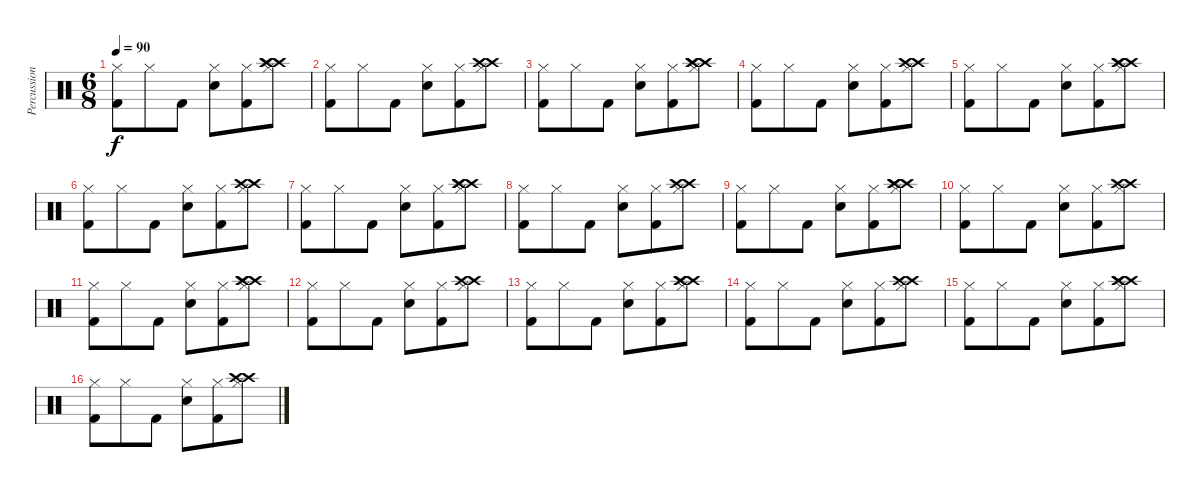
\track ("Percussion" "Percussion") {instrument percussion}
\staff {score}
\articulation defaults
\ts (6 8)
\tempo 90
\clef neutral
\ks c
("Hi-Hat (closed)" "Kick (hit) 2").8{dy f} "Hi-Hat (closed)".8 "Kick (hit) 2".8 ("Hi-Hat (closed)" "Electric Snare (hit)").8 ("Hi-Hat (closed)" "Kick (hit) 2").8 ("Hi-Hat (closed)" "Crash high (hit)" "Crash high (hit)" "Crash high (hit)").8 |
("Hi-Hat (closed)" "Kick (hit) 2").8 "Hi-Hat (closed)".8 "Kick (hit) 2".8 ("Hi-Hat (closed)" "Electric Snare (hit)").8 ("Hi-Hat (closed)" "Kick (hit) 2").8 ("Hi-Hat (closed)" "Crash high (hit)" "Crash high (hit)").8 |
("Hi-Hat (closed)" "Kick (hit) 2").8 "Hi-Hat (closed)".8 "Kick (hit) 2".8 ("Hi-Hat (closed)" "Electric Snare (hit)").8 ("Hi-Hat (closed)" "Kick (hit) 2").8 ("Hi-Hat (closed)" "Crash high (hit)" "Crash high (hit)" "Crash high (hit)").8 |
("Hi-Hat (closed)" "Kick (hit) 2").8 "Hi-Hat (closed)".8 "Kick (hit) 2".8 ("Hi-Hat (closed)" "Electric Snare (hit)").8 ("Hi-Hat (closed)" "Kick (hit) 2").8 ("Hi-Hat (closed)" "Crash high (hit)" "Crash high (hit)").8 |
("Hi-Hat (closed)" "Kick (hit) 2").8 "Hi-Hat (closed)".8 "Kick (hit) 2".8 ("Hi-Hat (closed)" "Electric Snare (hit)").8 ("Hi-Hat (closed)" "Kick (hit) 2").8 ("Hi-Hat (closed)" "Crash high (hit)" "Crash high (hit)" "Crash high (hit)").8 |
("Hi-Hat (closed)" "Kick (hit) 2").8 "Hi-Hat (closed)".8 "Kick (hit) 2".8 ("Hi-Hat (closed)" "Electric Snare (hit)").8 ("Hi-Hat (closed)" "Kick (hit) 2").8 ("Hi-Hat (closed)" "Crash high (hit)" "Crash high (hit)").8 |
("Hi-Hat (closed)" "Kick (hit) 2").8 "Hi-Hat (closed)".8 "Kick (hit) 2".8 ("Hi-Hat (closed)" "Electric Snare (hit)").8 ("Hi-Hat (closed)" "Kick (hit) 2").8 ("Hi-Hat (closed)" "Crash high (hit)" "Crash high (hit)" "Crash high (hit)").8 |
("Hi-Hat (closed)" "Kick (hit) 2").8 "Hi-Hat (closed)".8 "Kick (hit) 2".8 ("Hi-Hat (closed)" "Electric Snare (hit)").8 ("Hi-Hat (closed)" "Kick (hit) 2").8 ("Hi-Hat (closed)" "Crash high (hit)" "Crash high (hit)").8 |
("Hi-Hat (closed)" "Kick (hit) 2").8 "Hi-Hat (closed)".8 "Kick (hit) 2".8 ("Hi-Hat (closed)" "Electric Snare (hit)").8 ("Hi-Hat (closed)" "Kick (hit) 2").8 ("Hi-Hat (closed)" "Crash high (hit)" "Crash high (hit)" "Crash high (hit)").8 |
("Hi-Hat (closed)" "Kick (hit) 2").8 "Hi-Hat (closed)".8 "Kick (hit) 2".8 ("Hi-Hat (closed)" "Electric Snare (hit)").8 ("Hi-Hat (closed)" "Kick (hit) 2").8 ("Hi-Hat (closed)" "Crash high (hit)" "Crash high (hit)").8 |
("Hi-Hat (closed)" "Kick (hit) 2").8 "Hi-Hat (closed)".8 "Kick (hit) 2".8 ("Hi-Hat (closed)" "Electric Snare (hit)").8 ("Hi-Hat (closed)" "Kick (hit) 2").8 ("Hi-Hat (closed)" "Crash high (hit)" "Crash high (hit)" "Crash high (hit)").8 |
("Hi-Hat (closed)" "Kick (hit) 2").8 "Hi-Hat (closed)".8 "Kick (hit) 2".8 ("Hi-Hat (closed)" "Electric Snare (hit)").8 ("Hi-Hat (closed)" "Kick (hit) 2").8 ("Hi-Hat (closed)" "Crash high (hit)" "Crash high (hit)").8 |
("Hi-Hat (closed)" "Kick (hit) 2").8 "Hi-Hat (closed)".8 "Kick (hit) 2".8 ("Hi-Hat (closed)" "Electric Snare (hit)").8 ("Hi-Hat (closed)" "Kick (hit) 2").8 ("Hi-Hat (closed)" "Crash high (hit)" "Crash high (hit)" "Crash high (hit)").8 |
("Hi-Hat (closed)" "Kick (hit) 2").8 "Hi-Hat (closed)".8 "Kick (hit) 2".8 ("Hi-Hat (closed)" "Electric Snare (hit)").8 ("Hi-Hat (closed)" "Kick (hit) 2").8 ("Hi-Hat (closed)" "Crash high (hit)" "Crash high (hit)").8 |
("Hi-Hat (closed)" "Kick (hit) 2").8 "Hi-Hat (closed)".8 "Kick (hit) 2".8 ("Hi-Hat (closed)" "Electric Snare (hit)").8 ("Hi-Hat (closed)" "Kick (hit) 2").8 ("Hi-Hat (closed)" "Crash high (hit)" "Crash high (hit)" "Crash high (hit)").8 |
("Hi-Hat (closed)" "Kick (hit) 2").8 "Hi-Hat (closed)".8 "Kick (hit) 2".8 ("Hi-Hat (closed)" "Electric Snare (hit)").8 ("Hi-Hat (closed)" "Kick (hit) 2").8 ("Hi-Hat (closed)" "Crash high (hit)" "Crash high (hit)").8
